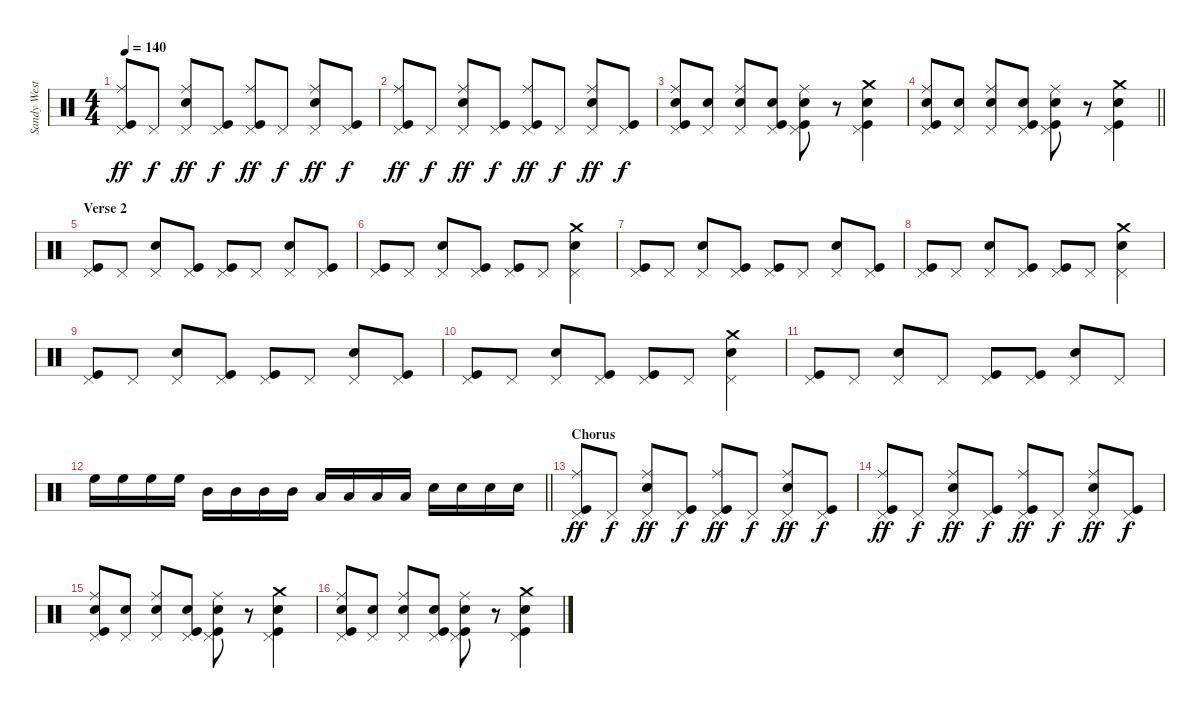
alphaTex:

\track ("Sandy West" "Sandy West") {instrument percussion}
\staff {score}
\articulation defaults
\ts (4 4)
\tempo 140
\clef neutral
\ks c
("Ride (middle)" "Pedal Hi-Hat (hit)" "Kick (hit)").8{dy ff} "Pedal Hi-Hat (hit)".8{dy f} ("Ride (middle)" "Snare (hit) 2" "Pedal Hi-Hat (hit)").8{dy ff} ("Pedal Hi-Hat (hit)" "Kick (hit)").8{dy f} ("Ride (middle)" "Pedal Hi-Hat (hit)" "Kick (hit)").8{dy ff} "Pedal Hi-Hat (hit)".8{dy f} ("Ride (middle)" "Snare (hit) 2" "Pedal Hi-Hat (hit)").8{dy ff} ("Pedal Hi-Hat (hit)" "Kick (hit)").8{dy f} |
("Ride (middle)" "Pedal Hi-Hat (hit)" "Kick (hit)").8{dy ff} "Pedal Hi-Hat (hit)".8{dy f} ("Ride (middle)" "Snare (hit) 2" "Pedal Hi-Hat (hit)").8{dy ff} ("Pedal Hi-Hat (hit)" "Kick (hit)").8{dy f} ("Ride (middle)" "Pedal Hi-Hat (hit)" "Kick (hit)").8{dy ff} "Pedal Hi-Hat (hit)".8{dy f} ("Ride (middle)" "Snare (hit) 2" "Pedal Hi-Hat (hit)").8{dy ff} ("Pedal Hi-Hat (hit)" "Kick (hit)").8{dy f} |
("Ride (middle)" "Pedal Hi-Hat (hit)" "Snare (hit) 2" "Kick (hit)").8 ("Pedal Hi-Hat (hit)" "Snare (hit) 2").8 ("Ride (middle)" "Pedal Hi-Hat (hit)" "Snare (hit) 2").8 ("Pedal Hi-Hat (hit)" "Snare (hit) 2" "Kick (hit)").8 ("Ride (middle)" "Pedal Hi-Hat (hit)" "Snare (hit) 2" "Kick (hit)").8 r.8 ("Crash medium (hit)" "Pedal Hi-Hat (hit)" "Snare (hit) 2" "Kick (hit)").4 |
\barLineRight lightlight
("Ride (middle)" "Pedal Hi-Hat (hit)" "Snare (hit) 2" "Kick (hit)").8 ("Pedal Hi-Hat (hit)" "Snare (hit) 2").8 ("Ride (middle)" "Pedal Hi-Hat (hit)" "Snare (hit) 2").8 ("Pedal Hi-Hat (hit)" "Snare (hit) 2" "Kick (hit)").8 ("Ride (middle)" "Pedal Hi-Hat (hit)" "Snare (hit) 2" "Kick (hit)").8 r.8 ("Crash medium (hit)" "Pedal Hi-Hat (hit)" "Snare (hit) 2" "Kick (hit)").4 |
\section ("" "Verse 2")
("Pedal Hi-Hat (hit)" "Kick (hit)").8 "Pedal Hi-Hat (hit)".8 ("Snare (hit) 2" "Pedal Hi-Hat (hit)").8 ("Pedal Hi-Hat (hit)" "Kick (hit)").8 ("Pedal Hi-Hat (hit)" "Kick (hit)").8 "Pedal Hi-Hat (hit)".8 ("Snare (hit) 2" "Pedal Hi-Hat (hit)").8 ("Pedal Hi-Hat (hit)" "Kick (hit)").8 |
("Pedal Hi-Hat (hit)" "Kick (hit)").8 "Pedal Hi-Hat (hit)".8 ("Snare (hit) 2" "Pedal Hi-Hat (hit)").8 ("Pedal Hi-Hat (hit)" "Kick (hit)").8 ("Pedal Hi-Hat (hit)" "Kick (hit)").8 "Pedal Hi-Hat (hit)".8 ("Crash medium (hit)" "Snare (hit) 2" "Pedal Hi-Hat (hit)").4 |
("Pedal Hi-Hat (hit)" "Kick (hit)").8 "Pedal Hi-Hat (hit)".8 ("Snare (hit) 2" "Pedal Hi-Hat (hit)").8 ("Pedal Hi-Hat (hit)" "Kick (hit)").8 ("Pedal Hi-Hat (hit)" "Kick (hit)").8 "Pedal Hi-Hat (hit)".8 ("Snare (hit) 2" "Pedal Hi-Hat (hit)").8 ("Pedal Hi-Hat (hit)" "Kick (hit)").8 |
("Pedal Hi-Hat (hit)" "Kick (hit)").8 "Pedal Hi-Hat (hit)".8 ("Snare (hit) 2" "Pedal Hi-Hat (hit)").8 ("Pedal Hi-Hat (hit)" "Kick (hit)").8 ("Pedal Hi-Hat (hit)" "Kick (hit)").8 "Pedal Hi-Hat (hit)".8 ("Crash medium (hit)" "Snare (hit) 2" "Pedal Hi-Hat (hit)").4 |
("Pedal Hi-Hat (hit)" "Kick (hit)").8 "Pedal Hi-Hat (hit)".8 ("Snare (hit) 2" "Pedal Hi-Hat (hit)").8 ("Pedal Hi-Hat (hit)" "Kick (hit)").8 ("Pedal Hi-Hat (hit)" "Kick (hit)").8 "Pedal Hi-Hat (hit)".8 ("Snare (hit) 2" "Pedal Hi-Hat (hit)").8 ("Pedal Hi-Hat (hit)" "Kick (hit)").8 |
("Pedal Hi-Hat (hit)" "Kick (hit)").8 "Pedal Hi-Hat (hit)".8 ("Snare (hit) 2" "Pedal Hi-Hat (hit)").8 ("Pedal Hi-Hat (hit)" "Kick (hit)").8 ("Pedal Hi-Hat (hit)" "Kick (hit)").8 "Pedal Hi-Hat (hit)".8 ("Crash medium (hit)" "Snare (hit) 2" "Pedal Hi-Hat (hit)").4 |
("Pedal Hi-Hat (hit)" "Kick (hit)").8 "Pedal Hi-Hat (hit)".8 ("Snare (hit) 2" "Pedal Hi-Hat (hit)").8 "Pedal Hi-Hat (hit)".8 ("Pedal Hi-Hat (hit)" "Kick (hit)").8 ("Pedal Hi-Hat (hit)" "Kick (hit)").8 ("Snare (hit) 2" "Pedal Hi-Hat (hit)").8 "Pedal Hi-Hat (hit)".8 |
\barLineRight lightlight "High Floor Tom (hit)".16 "High Floor Tom (hit)".16 "High Floor Tom (hit)".16 "High Floor Tom (hit)".16 "Mid Tom (hit)".16 "Mid Tom (hit)".16 "Mid Tom (hit)".16 "Mid Tom (hit)".16 "Low Tom (hit)".16 "Low Tom (hit)".16 "Low Tom (hit)".16 "Low Tom (hit)".16 "Snare (hit) 2".16 "Snare (hit) 2".16 "Snare (hit) 2".16 "Snare (hit) 2".16
|
\section ("" "Chorus")
("Ride (middle)" "Pedal Hi-Hat (hit)" "Kick (hit)").8{dy ff} "Pedal Hi-Hat (hit)".8{dy f} ("Ride (middle)" "Snare (hit) 2" "Pedal Hi-Hat (hit)").8{dy ff} ("Pedal Hi-Hat (hit)" "Kick (hit)").8{dy f} ("Ride (middle)" "Pedal Hi-Hat (hit)" "Kick (hit)").8{dy ff} "Pedal Hi-Hat (hit)".8{dy f} ("Ride (middle)" "Snare (hit) 2" "Pedal Hi-Hat (hit)").8{dy ff} ("Pedal Hi-Hat (hit)" "Kick (hit)").8{dy f} |
("Ride (middle)" "Pedal Hi-Hat (hit)" "Kick (hit)").8{dy ff} "Pedal Hi-Hat (hit)".8{dy f} ("Ride (middle)" "Snare (hit) 2" "Pedal Hi-Hat (hit)").8{dy ff} ("Pedal Hi-Hat (hit)" "Kick (hit)").8{dy f} ("Ride (middle)" "Pedal Hi-Hat (hit)" "Kick (hit)").8{dy ff} "Pedal Hi-Hat (hit)".8{dy f} ("Ride (middle)" "Snare (hit) 2" "Pedal Hi-Hat (hit)").8{dy ff} ("Pedal Hi-Hat (hit)" "Kick (hit)").8{dy f} |
("Ride (middle)" "Pedal Hi-Hat (hit)" "Snare (hit) 2" "Kick (hit)").8 ("Pedal Hi-Hat (hit)" "Snare (hit) 2").8 ("Ride (middle)" "Pedal Hi-Hat (hit)" "Snare (hit) 2").8 ("Pedal Hi-Hat (hit)" "Snare (hit) 2" "Kick (hit)").8 ("Ride (middle)" "Pedal Hi-Hat (hit)" "Snare (hit) 2" "Kick (hit)").8 r.8 ("Crash medium (hit)" "Pedal Hi-Hat (hit)" "Snare (hit) 2" "Kick (hit)").4 |
("Ride (middle)" "Pedal Hi-Hat (hit)" "Snare (hit) 2" "Kick (hit)").8 ("Pedal Hi-Hat (hit)" "Snare (hit) 2").8 ("Ride (middle)" "Pedal Hi-Hat (hit)" "Snare (hit) 2").8 ("Pedal Hi-Hat (hit)" "Snare (hit) 2" "Kick (hit)").8 ("Ride (middle)" "Pedal Hi-Hat (hit)" "Snare (hit) 2" "Kick (hit)").8 r.8 ("Crash medium (hit)" "Pedal Hi-Hat (hit)" "Snare (hit) 2" "Kick (hit)").4
